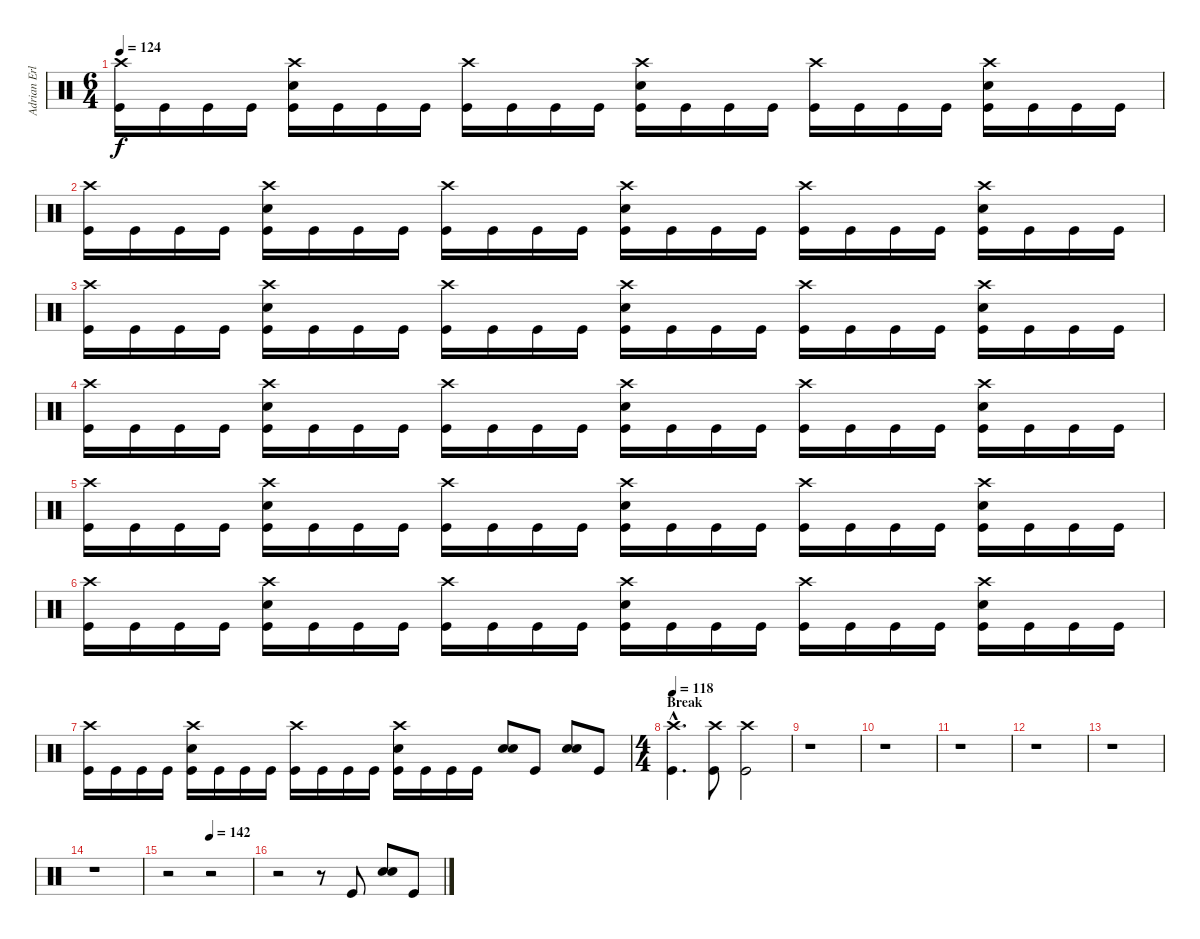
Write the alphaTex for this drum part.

\track ("Adrian Erlandsson (Norseman of the Apoca" "Adrian Erl") {instrument percussion}
\staff {score}
\articulation defaults
\ts (6 4)
\tempo 124
\clef neutral
\ks c
("Crash high (hit)" "Kick (hit)").16{dy f} "Kick (hit)".16 "Kick (hit)".16 "Kick (hit)".16 ("Crash high (hit)" "Electric Snare (hit)" "Kick (hit)").16 "Kick (hit)".16 "Kick (hit)".16 "Kick (hit)".16 ("Crash high (hit)" "Kick (hit)").16 "Kick (hit)".16 "Kick (hit)".16 "Kick (hit)".16 ("Crash high (hit)" "Electric Snare (hit)" "Kick (hit)").16 "Kick (hit)".16 "Kick (hit)".16 "Kick (hit)".16 ("Crash high (hit)" "Kick (hit)").16 "Kick (hit)".16 "Kick (hit)".16 "Kick (hit)".16 ("Crash high (hit)" "Electric Snare (hit)" "Kick (hit)").16 "Kick (hit)".16 "Kick (hit)".16 "Kick (hit)".16 |
("Crash high (hit)" "Kick (hit)").16 "Kick (hit)".16 "Kick (hit)".16 "Kick (hit)".16 ("Crash high (hit)" "Electric Snare (hit)" "Kick (hit)").16 "Kick (hit)".16 "Kick (hit)".16 "Kick (hit)".16 ("Crash high (hit)" "Kick (hit)").16 "Kick (hit)".16 "Kick (hit)".16 "Kick (hit)".16 ("Crash high (hit)" "Electric Snare (hit)" "Kick (hit)").16 "Kick (hit)".16 "Kick (hit)".16 "Kick (hit)".16 ("Crash high (hit)" "Kick (hit)").16 "Kick (hit)".16 "Kick (hit)".16 "Kick (hit)".16 ("Crash high (hit)" "Electric Snare (hit)" "Kick (hit)").16 "Kick (hit)".16 "Kick (hit)".16 "Kick (hit)".16 |
("Crash high (hit)" "Kick (hit)").16 "Kick (hit)".16 "Kick (hit)".16 "Kick (hit)".16 ("Crash high (hit)" "Electric Snare (hit)" "Kick (hit)").16 "Kick (hit)".16 "Kick (hit)".16 "Kick (hit)".16 ("Crash high (hit)" "Kick (hit)").16 "Kick (hit)".16 "Kick (hit)".16 "Kick (hit)".16 ("Crash high (hit)" "Electric Snare (hit)" "Kick (hit)").16 "Kick (hit)".16 "Kick (hit)".16 "Kick (hit)".16 ("Crash high (hit)" "Kick (hit)").16 "Kick (hit)".16 "Kick (hit)".16 "Kick (hit)".16 ("Crash high (hit)" "Electric Snare (hit)" "Kick (hit)").16 "Kick (hit)".16 "Kick (hit)".16 "Kick (hit)".16 |
("Crash high (hit)" "Kick (hit)").16 "Kick (hit)".16 "Kick (hit)".16 "Kick (hit)".16 ("Crash high (hit)" "Electric Snare (hit)" "Kick (hit)").16 "Kick (hit)".16 "Kick (hit)".16 "Kick (hit)".16 ("Crash high (hit)" "Kick (hit)").16 "Kick (hit)".16 "Kick (hit)".16 "Kick (hit)".16 ("Crash high (hit)" "Electric Snare (hit)" "Kick (hit)").16 "Kick (hit)".16 "Kick (hit)".16 "Kick (hit)".16 ("Crash high (hit)" "Kick (hit)").16 "Kick (hit)".16 "Kick (hit)".16 "Kick (hit)".16 ("Crash high (hit)" "Electric Snare (hit)" "Kick (hit)").16 "Kick (hit)".16 "Kick (hit)".16 "Kick (hit)".16 |
("Crash high (hit)" "Kick (hit)").16 "Kick (hit)".16 "Kick (hit)".16 "Kick (hit)".16 ("Crash high (hit)" "Electric Snare (hit)" "Kick (hit)").16 "Kick (hit)".16 "Kick (hit)".16 "Kick (hit)".16 ("Crash high (hit)" "Kick (hit)").16 "Kick (hit)".16 "Kick (hit)".16 "Kick (hit)".16 ("Crash high (hit)" "Electric Snare (hit)" "Kick (hit)").16 "Kick (hit)".16 "Kick (hit)".16 "Kick (hit)".16 ("Crash high (hit)" "Kick (hit)").16 "Kick (hit)".16 "Kick (hit)".16 "Kick (hit)".16 ("Crash high (hit)" "Electric Snare (hit)" "Kick (hit)").16 "Kick (hit)".16 "Kick (hit)".16 "Kick (hit)".16 |
("Crash high (hit)" "Kick (hit)").16 "Kick (hit)".16 "Kick (hit)".16 "Kick (hit)".16 ("Crash high (hit)" "Electric Snare (hit)" "Kick (hit)").16 "Kick (hit)".16 "Kick (hit)".16 "Kick (hit)".16 ("Crash high (hit)" "Kick (hit)").16 "Kick (hit)".16 "Kick (hit)".16 "Kick (hit)".16 ("Crash high (hit)" "Electric Snare (hit)" "Kick (hit)").16 "Kick (hit)".16 "Kick (hit)".16 "Kick (hit)".16 ("Crash high (hit)" "Kick (hit)").16 "Kick (hit)".16 "Kick (hit)".16 "Kick (hit)".16 ("Crash high (hit)" "Electric Snare (hit)" "Kick (hit)").16 "Kick (hit)".16 "Kick (hit)".16 "Kick (hit)".16 |
("Crash high (hit)" "Kick (hit)").16 "Kick (hit)".16 "Kick (hit)".16 "Kick (hit)".16 ("Crash high (hit)" "Electric Snare (hit)" "Kick (hit)").16 "Kick (hit)".16 "Kick (hit)".16 "Kick (hit)".16 ("Crash high (hit)" "Kick (hit)").16 "Kick (hit)".16 "Kick (hit)".16 "Kick (hit)".16 ("Crash high (hit)" "Electric Snare (hit)" "Kick (hit)").16 "Kick (hit)".16 "Kick (hit)".16 "Kick (hit)".16 ("Electric Snare (hit)" "Electric Snare (hit)").8{bu 120} "Kick (hit)".8 ("Electric Snare (hit)" "Electric Snare (hit)").8{bu 120} "Kick (hit)".8 |
\ts (4 4)
\section ("" "Break")
\tempo 118
("Crash high (hit)"{hac} "Kick (hit)"{hac}).4{d} ("Crash high (hit)" "Kick (hit)").8 ("Crash high (hit)" "Kick (hit)").2 |
r.1 |
r.1 |
r.1 |
r.1 |
r.1 |
r.1 |
\tempo (142 0.5)
r.2 r.2 |
r.2 r.8 "Kick (hit)".8 ("Electric Snare (hit)" "Electric Snare (hit)").8{bu 120} "Kick (hit)".8
